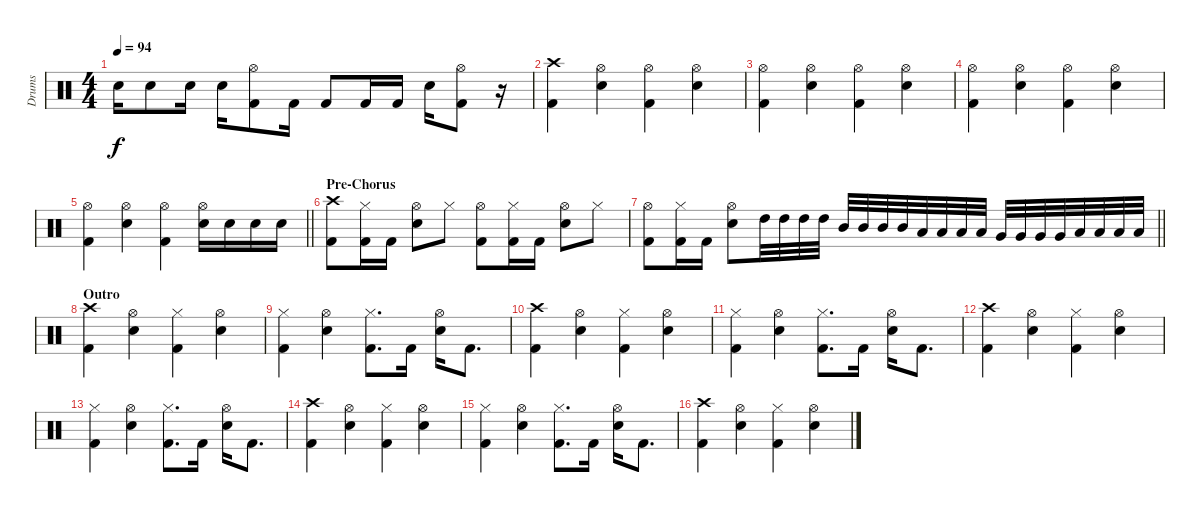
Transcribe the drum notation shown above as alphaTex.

\track ("Drums" "Drums") {instrument percussion}
\staff {score}
\articulation defaults
\ts (4 4)
\tempo 94
\clef neutral
\ks c "Snare (hit) 2".16{dy f} "Snare (hit) 2".8 "Snare (hit) 2".16 "Snare (hit) 2".16
("Hi-Hat (open)" "Kick (hit) 2").8 "Kick (hit) 2".16 "Kick (hit) 2".8 "Kick (hit) 2".16 "Kick (hit) 2".16 "Snare (hit) 2".16 ("Hi-Hat (open)" "Kick (hit) 2").8 r.16 |
("Crash high (hit)" "Kick (hit) 2").4 ("Hi-Hat (open)" "Snare (hit) 2").4 ("Hi-Hat (open)" "Kick (hit) 2").4 ("Hi-Hat (open)" "Snare (hit) 2").4 |
("Hi-Hat (open)" "Kick (hit) 2").4 ("Hi-Hat (open)" "Snare (hit) 2").4 ("Hi-Hat (open)" "Kick (hit) 2").4 ("Hi-Hat (open)" "Snare (hit) 2").4 |
("Hi-Hat (open)" "Kick (hit) 2").4 ("Hi-Hat (open)" "Snare (hit) 2").4 ("Hi-Hat (open)" "Kick (hit) 2").4 ("Hi-Hat (open)" "Snare (hit) 2").4 |
\barLineRight lightlight
("Hi-Hat (open)" "Kick (hit) 2").4 ("Hi-Hat (open)" "Snare (hit) 2").4 ("Hi-Hat (open)" "Kick (hit) 2").4 ("Hi-Hat (open)" "Snare (hit) 2").16 "Snare (hit) 2".16 "Snare (hit) 2".16 "Snare (hit) 2".16 |
\section ("" "Pre-Chorus")
("Crash high (hit)" "Kick (hit) 2").8 ("Hi-Hat (closed)" "Kick (hit) 2").16 "Kick (hit) 2".16 ("Hi-Hat (open)" "Snare (hit) 2").8 "Hi-Hat (closed)".8 ("Hi-Hat (open)" "Kick (hit) 2").8 ("Hi-Hat (closed)" "Kick (hit) 2").16 "Kick (hit) 2".16 ("Hi-Hat (open)" "Snare (hit) 2").8 "Hi-Hat (closed)".8 |
\barLineRight lightlight
("Hi-Hat (open)" "Kick (hit) 2").8 ("Hi-Hat (closed)" "Kick (hit) 2").16 "Kick (hit) 2".16 ("Hi-Hat (open)" "Snare (hit) 2").8 "High Tom (hit)".32 "High Tom (hit)".32 "High Tom (hit)".32 "High Tom (hit)".32 "Mid Tom (hit)".32 "Mid Tom (hit)".32 "Mid Tom (hit)".32 "Mid Tom (hit)".32 "Low Tom (hit)".32 "Low Tom (hit)".32 "Low Tom (hit)".32 "Low Tom (hit)".32 "Very Low Tom (hit)".32 "Very Low Tom (hit)".32 "Very Low Tom (hit)".32 "Very Low Tom (hit)".32 "Low Floor Tom (hit)".32 "Low Floor Tom (hit)".32 "Low Floor Tom (hit)".32 "Low Floor Tom (hit)".32 |
\section ("" "Outro")
("Crash high (hit)" "Kick (hit) 2").4 ("Hi-Hat (open)" "Snare (hit) 2").4 ("Hi-Hat (closed)" "Kick (hit) 2").4 ("Hi-Hat (open)" "Snare (hit) 2").4 |
("Hi-Hat (closed)" "Kick (hit) 2").4 ("Hi-Hat (open)" "Snare (hit) 2").4 ("Hi-Hat (closed)" "Kick (hit) 2").8{d} "Kick (hit) 2".16 ("Hi-Hat (open)" "Snare (hit) 2").16 "Kick (hit) 2".8{d} |
("Crash high (hit)" "Kick (hit) 2").4 ("Hi-Hat (open)" "Snare (hit) 2").4 ("Hi-Hat (closed)" "Kick (hit) 2").4 ("Hi-Hat (open)" "Snare (hit) 2").4 |
("Hi-Hat (closed)" "Kick (hit) 2").4 ("Hi-Hat (open)" "Snare (hit) 2").4 ("Hi-Hat (closed)" "Kick (hit) 2").8{d} "Kick (hit) 2".16 ("Hi-Hat (open)" "Snare (hit) 2").16 "Kick (hit) 2".8{d} |
("Crash high (hit)" "Kick (hit) 2").4 ("Hi-Hat (open)" "Snare (hit) 2").4 ("Hi-Hat (closed)" "Kick (hit) 2").4 ("Hi-Hat (open)" "Snare (hit) 2").4 |
("Hi-Hat (closed)" "Kick (hit) 2").4 ("Hi-Hat (open)" "Snare (hit) 2").4 ("Hi-Hat (closed)" "Kick (hit) 2").8{d} "Kick (hit) 2".16 ("Hi-Hat (open)" "Snare (hit) 2").16 "Kick (hit) 2".8{d} |
("Crash high (hit)" "Kick (hit) 2").4 ("Hi-Hat (open)" "Snare (hit) 2").4 ("Hi-Hat (closed)" "Kick (hit) 2").4 ("Hi-Hat (open)" "Snare (hit) 2").4 |
("Hi-Hat (closed)" "Kick (hit) 2").4 ("Hi-Hat (open)" "Snare (hit) 2").4 ("Hi-Hat (closed)" "Kick (hit) 2").8{d} "Kick (hit) 2".16 ("Hi-Hat (open)" "Snare (hit) 2").16 "Kick (hit) 2".8{d} |
("Crash high (hit)" "Kick (hit) 2").4 ("Hi-Hat (open)" "Snare (hit) 2").4 ("Hi-Hat (closed)" "Kick (hit) 2").4 ("Hi-Hat (open)" "Snare (hit) 2").4
